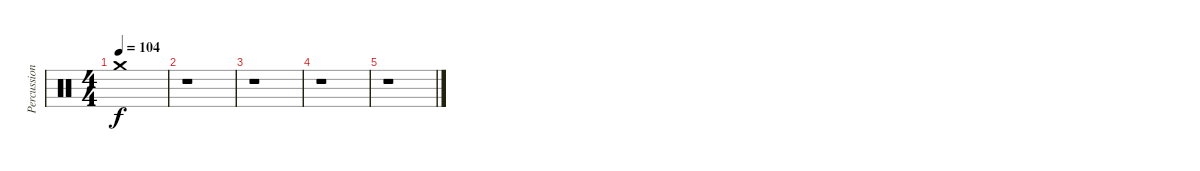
\track ("Percussions" "Percussion") {instrument percussion}
\staff {score}
\articulation defaults
\ts (4 4)
\tempo 104
\clef neutral
\ks c "Crash medium (hit)".1{dy f}
|
r.1 |
r.1 |
r.1 |
r.1
